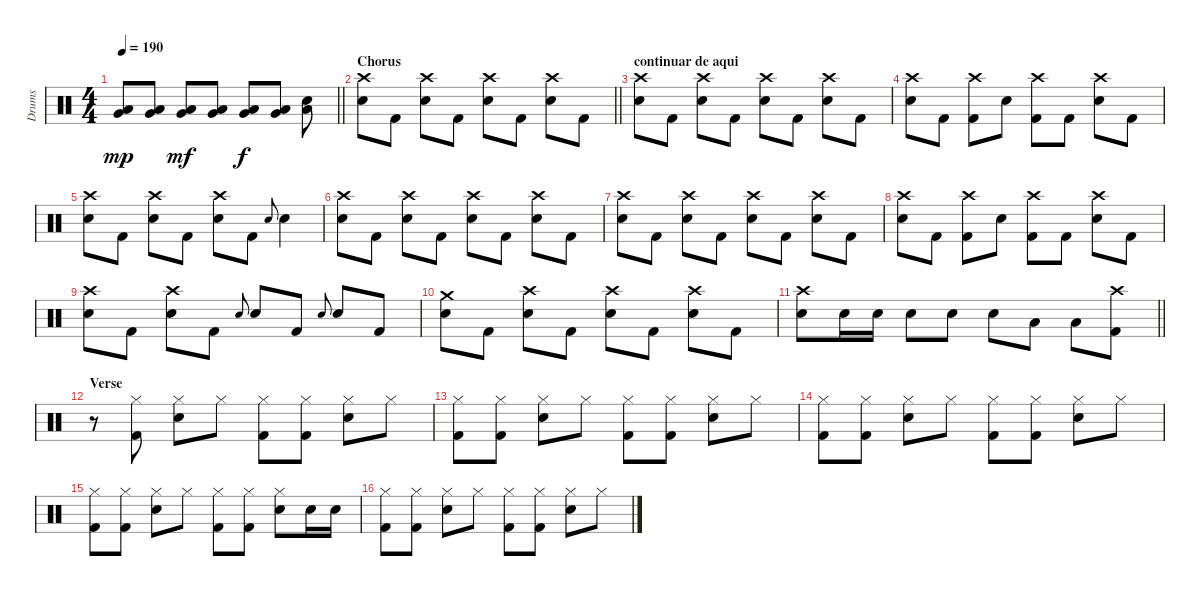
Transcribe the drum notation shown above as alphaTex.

\track ("Drums" "Drums") {instrument percussion}
\staff {score}
\articulation defaults
\ts (4 4)
\tempo 190
\clef neutral
\barLineRight lightlight
\ks c
("Very Low Tom (hit)" "Low Floor Tom (hit)").8{dy mp} ("Very Low Tom (hit)" "Low Floor Tom (hit)").8 ("Very Low Tom (hit)" "Low Floor Tom (hit)").8{dy mf} ("Very Low Tom (hit)" "Low Floor Tom (hit)").8 ("Very Low Tom (hit)" "Low Floor Tom (hit)").8{dy f} ("Very Low Tom (hit)" "Low Floor Tom (hit)").8 ("Electric Snare (hit)" "Low Floor Tom (hit)").8 |
\section ("" "Chorus ")
\barLineRight lightlight
("Crash high (hit)" "Electric Snare (hit)").8 "Kick (hit) 2".8 ("Crash high (hit)" "Electric Snare (hit)").8 "Kick (hit) 2".8 ("Crash high (hit)" "Electric Snare (hit)").8 "Kick (hit) 2".8 ("Crash high (hit)" "Electric Snare (hit)").8 "Kick (hit) 2".8 |
\section ("" "continuar de aqui")
("Crash high (hit)" "Electric Snare (hit)").8 "Kick (hit) 2".8 ("Crash high (hit)" "Electric Snare (hit)").8 "Kick (hit) 2".8 ("Crash high (hit)" "Electric Snare (hit)").8 "Kick (hit) 2".8 ("Crash high (hit)" "Electric Snare (hit)").8 "Kick (hit) 2".8 |
("Crash high (hit)" "Electric Snare (hit)").8 "Kick (hit) 2".8 ("Crash high (hit)" "Kick (hit) 2").8 "Electric Snare (hit)".8 ("Crash high (hit)" "Kick (hit) 2").8 "Kick (hit) 2".8 ("Crash high (hit)" "Electric Snare (hit)").8 "Kick (hit) 2".8 |
("Crash high (hit)" "Electric Snare (hit)").8 "Kick (hit) 2".8 ("Crash high (hit)" "Electric Snare (hit)").8 "Kick (hit) 2".8 ("Crash high (hit)" "Electric Snare (hit)").8 "Kick (hit) 2".8 "Electric Snare (hit)".8{gr onbeat} "Electric Snare (hit)".4 |
("Crash high (hit)" "Electric Snare (hit)").8 "Kick (hit) 2".8 ("Crash high (hit)" "Electric Snare (hit)").8 "Kick (hit) 2".8 ("Crash high (hit)" "Electric Snare (hit)").8 "Kick (hit) 2".8 ("Crash high (hit)" "Electric Snare (hit)").8 "Kick (hit) 2".8 |
("Crash high (hit)" "Electric Snare (hit)").8 "Kick (hit) 2".8 ("Crash high (hit)" "Electric Snare (hit)").8 "Kick (hit) 2".8 ("Crash high (hit)" "Electric Snare (hit)").8 "Kick (hit) 2".8 ("Crash high (hit)" "Electric Snare (hit)").8 "Kick (hit) 2".8 |
("Crash high (hit)" "Electric Snare (hit)").8 "Kick (hit) 2".8 ("Crash high (hit)" "Kick (hit) 2").8 "Electric Snare (hit)".8 ("Crash high (hit)" "Kick (hit) 2").8 "Kick (hit) 2".8 ("Crash high (hit)" "Electric Snare (hit)").8 "Kick (hit) 2".8 |
("Crash high (hit)" "Electric Snare (hit)").8 "Kick (hit) 2".8 ("Crash high (hit)" "Electric Snare (hit)").8 "Kick (hit) 2".8 "Electric Snare (hit)".8{gr onbeat} "Electric Snare (hit)".8 "Kick (hit) 2".8 "Electric Snare (hit)".8{gr onbeat} "Electric Snare (hit)".8 "Kick (hit) 2".8 |
("Crash medium (hit)" "Electric Snare (hit)").8 "Kick (hit) 2".8 ("Crash high (hit)" "Electric Snare (hit)").8 "Kick (hit) 2".8 ("Crash high (hit)" "Electric Snare (hit)").8 "Kick (hit) 2".8 ("Crash high (hit)" "Electric Snare (hit)").8 "Kick (hit) 2".8 |
\barLineRight lightlight
("Crash high (hit)" "Electric Snare (hit)").8 "Electric Snare (hit)".16 "Electric Snare (hit)".16 "Electric Snare (hit)".8 "Electric Snare (hit)".8 "Electric Snare (hit)".8 "Low Tom (hit)".8 "Low Floor Tom (hit)".8 ("Crash high (hit)" "Kick (hit) 2").8 |
\section ("" "Verse ")
r.8 ("Hi-Hat (closed)" "Kick (hit) 2").8 ("Hi-Hat (closed)" "Electric Snare (hit)").8 "Hi-Hat (closed)".8 ("Hi-Hat (closed)" "Kick (hit) 2").8 ("Hi-Hat (closed)" "Kick (hit) 2").8 ("Hi-Hat (closed)" "Electric Snare (hit)").8 "Hi-Hat (closed)".8 |
("Hi-Hat (closed)" "Kick (hit) 2").8 ("Hi-Hat (closed)" "Kick (hit) 2").8 ("Hi-Hat (closed)" "Electric Snare (hit)").8 "Hi-Hat (closed)".8 ("Hi-Hat (closed)" "Kick (hit) 2").8 ("Hi-Hat (closed)" "Kick (hit) 2").8 ("Hi-Hat (closed)" "Electric Snare (hit)").8 "Hi-Hat (closed)".8 |
("Hi-Hat (closed)" "Kick (hit) 2").8 ("Hi-Hat (closed)" "Kick (hit) 2").8 ("Hi-Hat (closed)" "Electric Snare (hit)").8 "Hi-Hat (closed)".8 ("Hi-Hat (closed)" "Kick (hit) 2").8 ("Hi-Hat (closed)" "Kick (hit) 2").8 ("Hi-Hat (closed)" "Electric Snare (hit)").8 "Hi-Hat (closed)".8 |
("Hi-Hat (closed)" "Kick (hit) 2").8 ("Hi-Hat (closed)" "Kick (hit) 2").8 ("Hi-Hat (closed)" "Electric Snare (hit)").8 "Hi-Hat (closed)".8 ("Hi-Hat (closed)" "Kick (hit) 2").8 ("Hi-Hat (closed)" "Kick (hit) 2").8 ("Hi-Hat (closed)" "Electric Snare (hit)").8 "Electric Snare (hit)".16 "Electric Snare (hit)".16 |
("Hi-Hat (closed)" "Kick (hit) 2").8 ("Hi-Hat (closed)" "Kick (hit) 2").8 ("Hi-Hat (closed)" "Electric Snare (hit)").8 "Hi-Hat (closed)".8 ("Hi-Hat (closed)" "Kick (hit) 2").8 ("Hi-Hat (closed)" "Kick (hit) 2").8 ("Hi-Hat (closed)" "Electric Snare (hit)").8 "Hi-Hat (closed)".8
